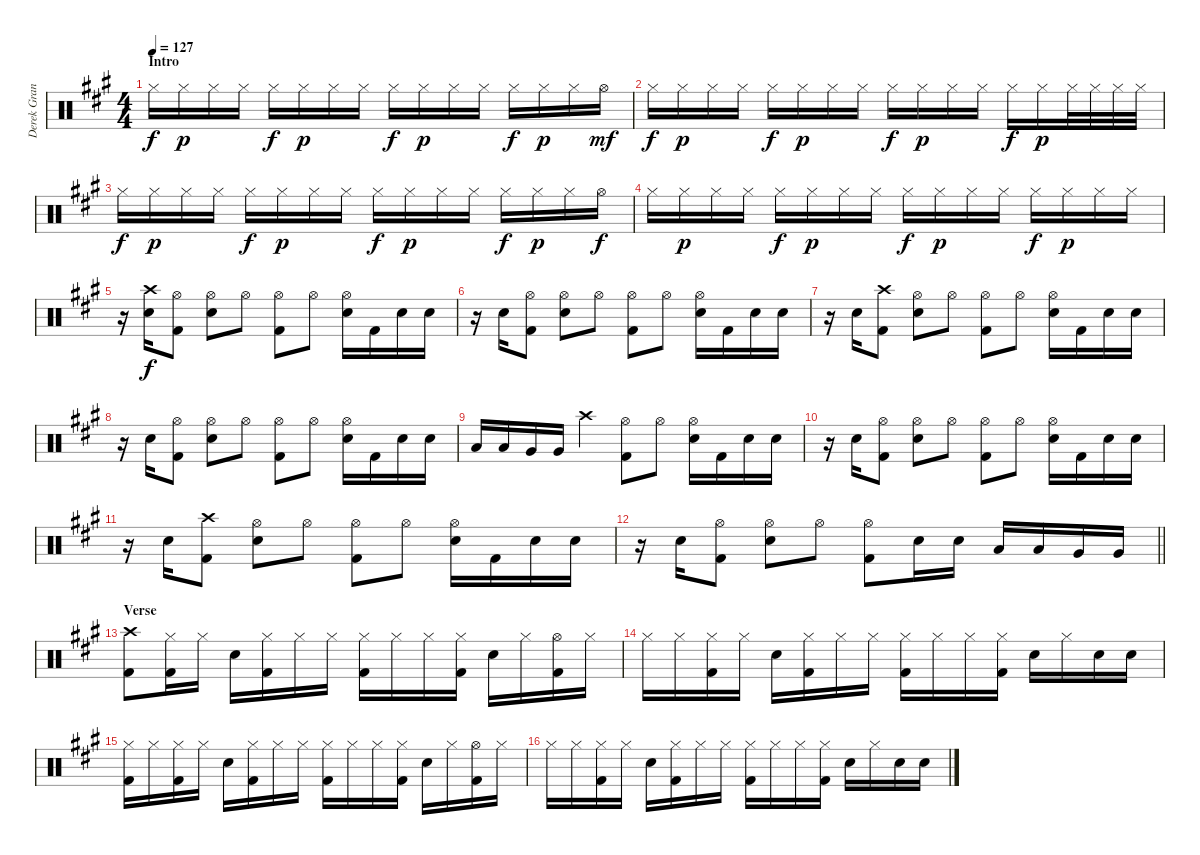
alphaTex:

\track ("Derek Grant - Drums" "Derek Gran") {instrument percussion}
\staff {score}
\articulation defaults
\ts (4 4)
\section ("" "Intro")
\tempo 127
\clef neutral
\ks a "Hi-Hat (closed)".16{dy f} "Hi-Hat (closed)".16{dy p} "Hi-Hat (closed)".16 "Hi-Hat (closed)".16 "Hi-Hat (closed)".16{dy f} "Hi-Hat (closed)".16{dy p} "Hi-Hat (closed)".16 "Hi-Hat (closed)".16 "Hi-Hat (closed)".16{dy f} "Hi-Hat (closed)".16{dy p} "Hi-Hat (closed)".16 "Hi-Hat (closed)".16 "Hi-Hat (closed)".16{dy f} "Hi-Hat (closed)".16{dy p} "Hi-Hat (closed)".16 "Hi-Hat (open)".16{dy mf}
|
"Hi-Hat (closed)".16{dy f} "Hi-Hat (closed)".16{dy p} "Hi-Hat (closed)".16 "Hi-Hat (closed)".16 "Hi-Hat (closed)".16{dy f} "Hi-Hat (closed)".16{dy p} "Hi-Hat (closed)".16 "Hi-Hat (closed)".16 "Hi-Hat (closed)".16{dy f} "Hi-Hat (closed)".16{dy p} "Hi-Hat (closed)".16 "Hi-Hat (closed)".16 "Hi-Hat (closed)".16{dy f} "Hi-Hat (closed)".16{dy p} "Hi-Hat (closed)".32 "Hi-Hat (closed)".32 "Hi-Hat (closed)".32 "Hi-Hat (closed)".32 |
"Hi-Hat (closed)".16{dy f} "Hi-Hat (closed)".16{dy p} "Hi-Hat (closed)".16 "Hi-Hat (closed)".16 "Hi-Hat (closed)".16{dy f} "Hi-Hat (closed)".16{dy p} "Hi-Hat (closed)".16 "Hi-Hat (closed)".16 "Hi-Hat (closed)".16{dy f} "Hi-Hat (closed)".16{dy p} "Hi-Hat (closed)".16 "Hi-Hat (closed)".16 "Hi-Hat (closed)".16{dy f} "Hi-Hat (closed)".16{dy p} "Hi-Hat (closed)".16 "Hi-Hat (open)".16{dy f} |
"Hi-Hat (closed)".16 "Hi-Hat (closed)".16{dy p} "Hi-Hat (closed)".16 "Hi-Hat (closed)".16 "Hi-Hat (closed)".16{dy f} "Hi-Hat (closed)".16{dy p} "Hi-Hat (closed)".16 "Hi-Hat (closed)".16 "Hi-Hat (closed)".16{dy f} "Hi-Hat (closed)".16{dy p} "Hi-Hat (closed)".16 "Hi-Hat (closed)".16 "Hi-Hat (closed)".16{dy f} "Hi-Hat (closed)".16{dy p} "Hi-Hat (closed)".16 "Hi-Hat (closed)".16 |
r.16 ("Crash high (hit)" "Snare (hit) 2").16{dy f} ("Kick (hit) 2" "Hi-Hat (open)").8 ("Hi-Hat (open)" "Snare (hit) 2").8 "Hi-Hat (open)".8 ("Hi-Hat (open)" "Kick (hit) 2").8 "Hi-Hat (open)".8 ("Hi-Hat (open)" "Snare (hit) 2").16 "Kick (hit) 2".16 "Snare (hit) 2".16 "Snare (hit) 2".16 |
r.16 "Snare (hit) 2".16 ("Kick (hit) 2" "Hi-Hat (open)").8 ("Hi-Hat (open)" "Snare (hit) 2").8 "Hi-Hat (open)".8 ("Hi-Hat (open)" "Kick (hit) 2").8 "Hi-Hat (open)".8 ("Hi-Hat (open)" "Snare (hit) 2").16 "Kick (hit) 2".16 "Snare (hit) 2".16 "Snare (hit) 2".16 |
r.16 "Snare (hit) 2".16 ("Kick (hit) 2" "Crash high (hit)").8 ("Hi-Hat (open)" "Snare (hit) 2").8 "Hi-Hat (open)".8 ("Hi-Hat (open)" "Kick (hit) 2").8 "Hi-Hat (open)".8 ("Hi-Hat (open)" "Snare (hit) 2").16 "Kick (hit) 2".16 "Snare (hit) 2".16 "Snare (hit) 2".16 |
r.16 "Snare (hit) 2".16 ("Kick (hit) 2" "Hi-Hat (open)").8 ("Hi-Hat (open)" "Snare (hit) 2").8 "Hi-Hat (open)".8 ("Hi-Hat (open)" "Kick (hit) 2").8 "Hi-Hat (open)".8 ("Hi-Hat (open)" "Snare (hit) 2").16 "Kick (hit) 2".16 "Snare (hit) 2".16 "Snare (hit) 2".16 |
"Low Tom (hit)".16 "Low Tom (hit)".16 "Very Low Tom (hit)".16 "Very Low Tom (hit)".16 "Crash high (hit)".4 ("Hi-Hat (open)" "Kick (hit) 2").8 "Hi-Hat (open)".8 ("Hi-Hat (open)" "Snare (hit) 2").16 "Kick (hit) 2".16 "Snare (hit) 2".16 "Snare (hit) 2".16 |
r.16 "Snare (hit) 2".16 ("Kick (hit) 2" "Hi-Hat (open)").8 ("Hi-Hat (open)" "Snare (hit) 2").8 "Hi-Hat (open)".8 ("Hi-Hat (open)" "Kick (hit) 2").8 "Hi-Hat (open)".8 ("Hi-Hat (open)" "Snare (hit) 2").16 "Kick (hit) 2".16 "Snare (hit) 2".16 "Snare (hit) 2".16 |
r.16 "Snare (hit) 2".16 ("Kick (hit) 2" "Crash high (hit)").8 ("Hi-Hat (open)" "Snare (hit) 2").8 "Hi-Hat (open)".8 ("Hi-Hat (open)" "Kick (hit) 2").8 "Hi-Hat (open)".8 ("Hi-Hat (open)" "Snare (hit) 2").16 "Kick (hit) 2".16 "Snare (hit) 2".16 "Snare (hit) 2".16 |
\barLineRight lightlight
r.16 "Snare (hit) 2".16 ("Kick (hit) 2" "Hi-Hat (open)").8 ("Hi-Hat (open)" "Snare (hit) 2").8 "Hi-Hat (open)".8 ("Hi-Hat (open)" "Kick (hit) 2").8 "Snare (hit) 2".16 "Snare (hit) 2".16 "Low Tom (hit)".16 "Low Tom (hit)".16 "Very Low Tom (hit)".16 "Very Low Tom (hit)".16 |
\section ("" "Verse")
("Crash high (hit)" "Kick (hit) 2").8 ("Kick (hit) 2" "Hi-Hat (closed)").16 "Hi-Hat (closed)".16 "Snare (hit) 2".16 ("Kick (hit) 2" "Hi-Hat (closed)").16 "Hi-Hat (closed)".16 "Hi-Hat (closed)".16 ("Hi-Hat (closed)" "Kick (hit) 2").16 "Hi-Hat (closed)".16 "Hi-Hat (closed)".16 ("Hi-Hat (closed)" "Kick (hit) 2").16 "Snare (hit) 2".16 "Hi-Hat (closed)".16 ("Hi-Hat (open)" "Kick (hit) 2").16 "Hi-Hat (closed)".16 |
"Hi-Hat (closed)".16 "Hi-Hat (closed)".16 ("Hi-Hat (closed)" "Kick (hit) 2").16 "Hi-Hat (closed)".16 "Snare (hit) 2".16 ("Kick (hit) 2" "Hi-Hat (closed)").16 "Hi-Hat (closed)".16 "Hi-Hat (closed)".16 ("Hi-Hat (closed)" "Kick (hit) 2").16 "Hi-Hat (closed)".16 "Hi-Hat (closed)".16 ("Hi-Hat (closed)" "Kick (hit) 2").16 "Snare (hit) 2".16 "Hi-Hat (closed)".16 "Electric Snare (hit)".16 "Electric Snare (hit)".16 |
("Hi-Hat (closed)" "Kick (hit) 2").16 "Hi-Hat (closed)".16 ("Hi-Hat (closed)" "Kick (hit) 2").16 "Hi-Hat (closed)".16 "Snare (hit) 2".16 ("Kick (hit) 2" "Hi-Hat (closed)").16 "Hi-Hat (closed)".16 "Hi-Hat (closed)".16 ("Hi-Hat (closed)" "Kick (hit) 2").16 "Hi-Hat (closed)".16 "Hi-Hat (closed)".16 ("Hi-Hat (closed)" "Kick (hit) 2").16 "Snare (hit) 2".16 "Hi-Hat (closed)".16 ("Hi-Hat (open)" "Kick (hit) 2").16 "Hi-Hat (closed)".16 |
"Hi-Hat (closed)".16 "Hi-Hat (closed)".16 ("Hi-Hat (closed)" "Kick (hit) 2").16 "Hi-Hat (closed)".16 "Snare (hit) 2".16 ("Kick (hit) 2" "Hi-Hat (closed)").16 "Hi-Hat (closed)".16 "Hi-Hat (closed)".16 ("Hi-Hat (closed)" "Kick (hit) 2").16 "Hi-Hat (closed)".16 "Hi-Hat (closed)".16 ("Hi-Hat (closed)" "Kick (hit) 2").16 "Snare (hit) 2".16 "Hi-Hat (closed)".16 "Electric Snare (hit)".16 "Electric Snare (hit)".16
